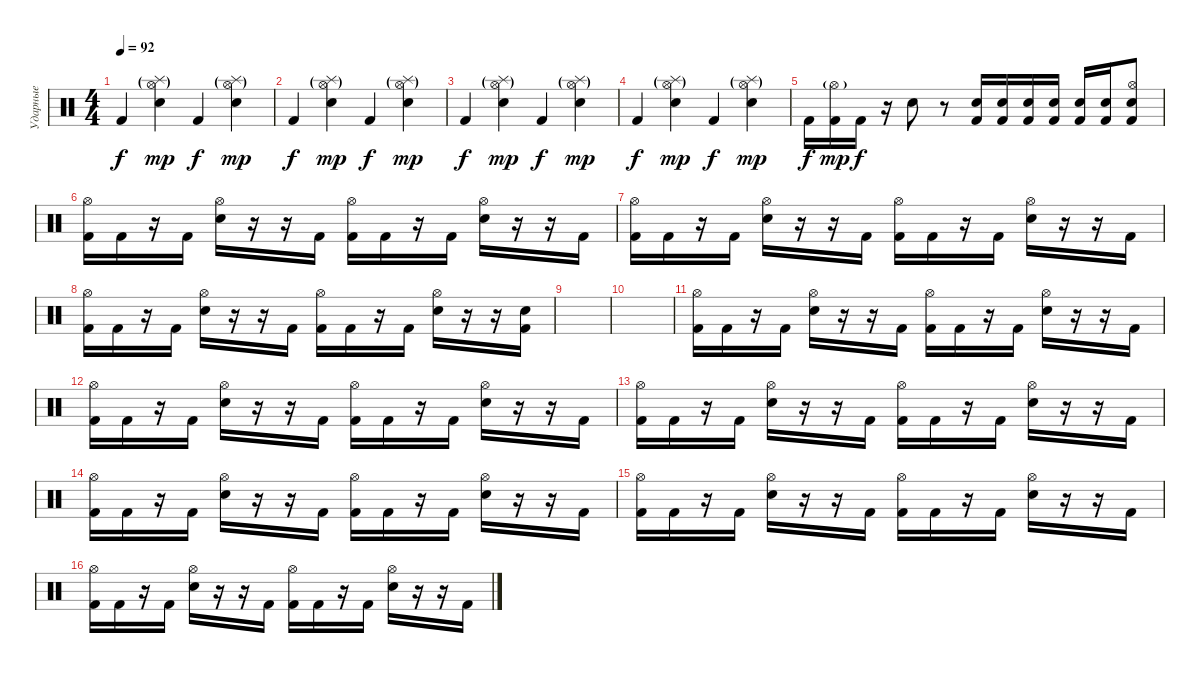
\track ("Ударные" "Ударные") {instrument percussion}
\staff {score}
\articulation defaults
\ts (4 4)
\tempo 92
\clef neutral
\ks c "Kick (hit) 2".4{dy f}
("Hi-Hat (open)"{g} "Splash (hit)"{g} "Snare (hit) 2").4{dy mp} "Kick (hit) 2".4{dy f} ("Hi-Hat (open)"{g} "Splash (hit)"{g} "Snare (hit) 2").4{dy mp} |
"Kick (hit) 2".4{dy f} ("Hi-Hat (open)"{g} "Splash (hit)"{g} "Snare (hit) 2").4{dy mp} "Kick (hit) 2".4{dy f} ("Hi-Hat (open)"{g} "Splash (hit)"{g} "Snare (hit) 2").4{dy mp} |
"Kick (hit) 2".4{dy f} ("Hi-Hat (open)"{g} "Splash (hit)"{g} "Snare (hit) 2").4{dy mp} "Kick (hit) 2".4{dy f} ("Hi-Hat (open)"{g} "Splash (hit)"{g} "Snare (hit) 2").4{dy mp} |
"Kick (hit) 2".4{dy f} ("Hi-Hat (open)"{g} "Splash (hit)"{g} "Snare (hit) 2").4{dy mp} "Kick (hit) 2".4{dy f} ("Hi-Hat (open)"{g} "Splash (hit)"{g} "Snare (hit) 2").4{dy mp} |
"Kick (hit) 2".16{dy f} ("Hi-Hat (open)"{g} "Kick (hit) 2").16{dy mp} "Kick (hit) 2".16{dy f} r.16 "Snare (hit) 2".8 r.8 ("Snare (hit) 2" "Kick (hit) 2").16 ("Snare (hit) 2" "Kick (hit) 2").16 ("Snare (hit) 2" "Kick (hit) 2").16 ("Snare (hit) 2" "Kick (hit) 2").16 ("Snare (hit) 2" "Kick (hit) 2").16 ("Snare (hit) 2" "Kick (hit) 2").16 ("Hi-Hat (open)" "Snare (hit) 2" "Kick (hit) 2").8 |
("Hi-Hat (open)" "Kick (hit) 2").16 "Kick (hit) 2".16 r.16 "Kick (hit) 2".16 ("Hi-Hat (open)" "Snare (hit) 2").16 r.16 r.16 "Kick (hit) 2".16 ("Hi-Hat (open)" "Kick (hit) 2").16 "Kick (hit) 2".16 r.16 "Kick (hit) 2".16 ("Hi-Hat (open)" "Snare (hit) 2").16 r.16 r.16 "Kick (hit) 2".16 |
("Hi-Hat (open)" "Kick (hit) 2").16 "Kick (hit) 2".16 r.16 "Kick (hit) 2".16 ("Hi-Hat (open)" "Snare (hit) 2").16 r.16 r.16 "Kick (hit) 2".16 ("Hi-Hat (open)" "Kick (hit) 2").16 "Kick (hit) 2".16 r.16 "Kick (hit) 2".16 ("Hi-Hat (open)" "Snare (hit) 2").16 r.16 r.16 "Kick (hit) 2".16 |
("Hi-Hat (open)" "Kick (hit) 2").16 "Kick (hit) 2".16 r.16 "Kick (hit) 2".16 ("Hi-Hat (open)" "Snare (hit) 2").16 r.16 r.16 "Kick (hit) 2".16 ("Hi-Hat (open)" "Kick (hit) 2").16 "Kick (hit) 2".16 r.16 "Kick (hit) 2".16 ("Hi-Hat (open)" "Snare (hit) 2").16 r.16 r.16 ("Snare (hit) 2" "Kick (hit) 2").16 |
|
|
("Hi-Hat (open)" "Kick (hit) 2").16 "Kick (hit) 2".16 r.16 "Kick (hit) 2".16 ("Hi-Hat (open)" "Snare (hit) 2").16 r.16 r.16 "Kick (hit) 2".16 ("Hi-Hat (open)" "Kick (hit) 2").16 "Kick (hit) 2".16 r.16 "Kick (hit) 2".16 ("Hi-Hat (open)" "Snare (hit) 2").16 r.16 r.16 "Kick (hit) 2".16 |
("Hi-Hat (open)" "Kick (hit) 2").16 "Kick (hit) 2".16 r.16 "Kick (hit) 2".16 ("Hi-Hat (open)" "Snare (hit) 2").16 r.16 r.16 "Kick (hit) 2".16 ("Hi-Hat (open)" "Kick (hit) 2").16 "Kick (hit) 2".16 r.16 "Kick (hit) 2".16 ("Hi-Hat (open)" "Snare (hit) 2").16 r.16 r.16 "Kick (hit) 2".16 |
("Hi-Hat (open)" "Kick (hit) 2").16 "Kick (hit) 2".16 r.16 "Kick (hit) 2".16 ("Hi-Hat (open)" "Snare (hit) 2").16 r.16 r.16 "Kick (hit) 2".16 ("Hi-Hat (open)" "Kick (hit) 2").16 "Kick (hit) 2".16 r.16 "Kick (hit) 2".16 ("Hi-Hat (open)" "Snare (hit) 2").16 r.16 r.16 "Kick (hit) 2".16 |
("Hi-Hat (open)" "Kick (hit) 2").16 "Kick (hit) 2".16 r.16 "Kick (hit) 2".16 ("Hi-Hat (open)" "Snare (hit) 2").16 r.16 r.16 "Kick (hit) 2".16 ("Hi-Hat (open)" "Kick (hit) 2").16 "Kick (hit) 2".16 r.16 "Kick (hit) 2".16 ("Hi-Hat (open)" "Snare (hit) 2").16 r.16 r.16 "Kick (hit) 2".16 |
("Hi-Hat (open)" "Kick (hit) 2").16 "Kick (hit) 2".16 r.16 "Kick (hit) 2".16 ("Hi-Hat (open)" "Snare (hit) 2").16 r.16 r.16 "Kick (hit) 2".16 ("Hi-Hat (open)" "Kick (hit) 2").16 "Kick (hit) 2".16 r.16 "Kick (hit) 2".16 ("Hi-Hat (open)" "Snare (hit) 2").16 r.16 r.16 "Kick (hit) 2".16 |
("Hi-Hat (open)" "Kick (hit) 2").16 "Kick (hit) 2".16 r.16 "Kick (hit) 2".16 ("Hi-Hat (open)" "Snare (hit) 2").16 r.16 r.16 "Kick (hit) 2".16 ("Hi-Hat (open)" "Kick (hit) 2").16 "Kick (hit) 2".16 r.16 "Kick (hit) 2".16 ("Hi-Hat (open)" "Snare (hit) 2").16 r.16 r.16 "Kick (hit) 2".16
